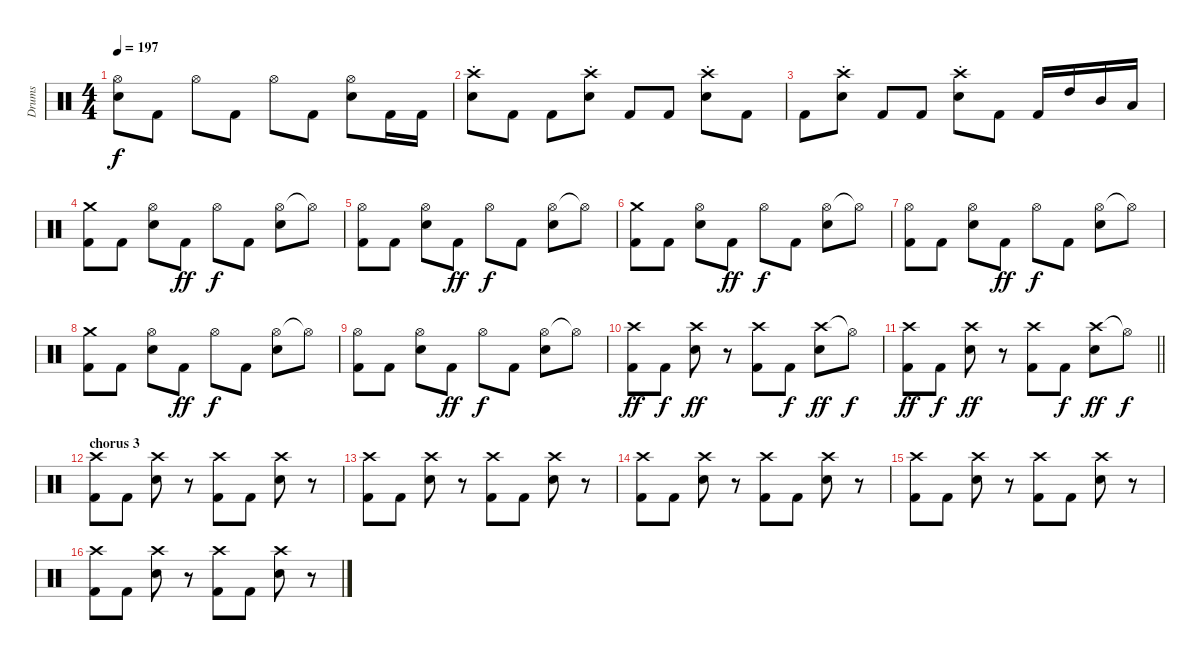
\track ("Drums" "Drums") {instrument percussion}
\staff {score}
\articulation defaults
\ts (4 4)
\tempo 197
\clef neutral
\ks c
("Hi-Hat (open)" "Snare (hit) 2").8{dy f} "Kick (hit) 2".8 "Hi-Hat (open)".8 "Kick (hit) 2".8 "Hi-Hat (open)".8 "Kick (hit) 2".8 ("Hi-Hat (open)" "Snare (hit) 2").8 "Kick (hit) 2".16 "Kick (hit) 2".16 |
("Crash high (hit)"{st} "Snare (hit) 2"{st}).8 "Kick (hit) 2".8 "Kick (hit) 2".8 ("Crash high (hit)"{st} "Snare (hit) 2"{st}).8 "Kick (hit) 2".8 "Kick (hit) 2".8 ("Crash high (hit)"{st} "Snare (hit) 2"{st}).8 "Kick (hit) 2".8 |
"Kick (hit) 2".8 ("Crash high (hit)"{st} "Snare (hit) 2"{st}).8 "Kick (hit) 2".8 "Kick (hit) 2".8 ("Crash high (hit)"{st} "Snare (hit) 2"{st}).8 "Kick (hit) 2".8 "Kick (hit) 2".16 "High Tom (hit)".16 "Mid Tom (hit)".16 "Low Tom (hit)".16 |
("Crash medium (hit)" "Kick (hit) 2").8 "Kick (hit) 2".8 ("Hi-Hat (open)" "Snare (hit) 2").8 "Kick (hit) 2".8{dy ff} "Hi-Hat (open)".8{dy f} "Kick (hit) 2".8 ("Hi-Hat (open)" "Snare (hit) 2").8 "Hi-Hat (open)"{t}.8 |
("Hi-Hat (open)" "Kick (hit) 2").8 "Kick (hit) 2".8 ("Hi-Hat (open)" "Snare (hit) 2").8 "Kick (hit) 2".8{dy ff} "Hi-Hat (open)".8{dy f} "Kick (hit) 2".8 ("Hi-Hat (open)" "Snare (hit) 2").8 "Hi-Hat (open)"{t}.8 |
("Crash medium (hit)" "Kick (hit) 2").8 "Kick (hit) 2".8 ("Hi-Hat (open)" "Snare (hit) 2").8 "Kick (hit) 2".8{dy ff} "Hi-Hat (open)".8{dy f} "Kick (hit) 2".8 ("Hi-Hat (open)" "Snare (hit) 2").8 "Hi-Hat (open)"{t}.8 |
("Hi-Hat (open)" "Kick (hit) 2").8 "Kick (hit) 2".8 ("Hi-Hat (open)" "Snare (hit) 2").8 "Kick (hit) 2".8{dy ff} "Hi-Hat (open)".8{dy f} "Kick (hit) 2".8 ("Hi-Hat (open)" "Snare (hit) 2").8 "Hi-Hat (open)"{t}.8 |
("Crash medium (hit)" "Kick (hit) 2").8 "Kick (hit) 2".8 ("Hi-Hat (open)" "Snare (hit) 2").8 "Kick (hit) 2".8{dy ff} "Hi-Hat (open)".8{dy f} "Kick (hit) 2".8 ("Hi-Hat (open)" "Snare (hit) 2").8 "Hi-Hat (open)"{t}.8 |
("Hi-Hat (open)" "Kick (hit) 2").8 "Kick (hit) 2".8 ("Hi-Hat (open)" "Snare (hit) 2").8 "Kick (hit) 2".8{dy ff} "Hi-Hat (open)".8{dy f} "Kick (hit) 2".8 ("Hi-Hat (open)" "Snare (hit) 2").8 "Hi-Hat (open)"{t}.8 |
("Crash high (hit)" "Kick (hit) 2").8{dy ff} "Kick (hit) 2".8{dy f} ("Crash high (hit)" "Snare (hit) 2").8{dy ff} r.8 ("Crash high (hit)" "Kick (hit) 2").8 "Kick (hit) 2".8{dy f} ("Crash high (hit)" "Snare (hit) 2").8{dy ff} "Hi-Hat (open)"{t}.8{dy f} |
\barLineRight lightlight
("Crash high (hit)" "Kick (hit) 2").8{dy ff} "Kick (hit) 2".8{dy f} ("Crash high (hit)" "Snare (hit) 2").8{dy ff} r.8 ("Crash high (hit)" "Kick (hit) 2").8 "Kick (hit) 2".8{dy f} ("Crash high (hit)" "Snare (hit) 2").8{dy ff} "Hi-Hat (open)"{t}.8{dy f} |
\section ("" "chorus 3")
("Crash high (hit)" "Kick (hit) 2").8 "Kick (hit) 2".8 ("Crash high (hit)" "Snare (hit) 2").8 r.8 ("Crash high (hit)" "Kick (hit) 2").8 "Kick (hit) 2".8 ("Crash high (hit)" "Snare (hit) 2").8 r.8 |
("Crash high (hit)" "Kick (hit) 2").8 "Kick (hit) 2".8 ("Crash high (hit)" "Snare (hit) 2").8 r.8 ("Crash high (hit)" "Kick (hit) 2").8 "Kick (hit) 2".8 ("Crash high (hit)" "Snare (hit) 2").8 r.8 |
("Crash high (hit)" "Kick (hit) 2").8 "Kick (hit) 2".8 ("Crash high (hit)" "Snare (hit) 2").8 r.8 ("Crash high (hit)" "Kick (hit) 2").8 "Kick (hit) 2".8 ("Crash high (hit)" "Snare (hit) 2").8 r.8 |
("Crash high (hit)" "Kick (hit) 2").8 "Kick (hit) 2".8 ("Crash high (hit)" "Snare (hit) 2").8 r.8 ("Crash high (hit)" "Kick (hit) 2").8 "Kick (hit) 2".8 ("Crash high (hit)" "Snare (hit) 2").8 r.8 |
("Crash high (hit)" "Kick (hit) 2").8 "Kick (hit) 2".8 ("Crash high (hit)" "Snare (hit) 2").8 r.8 ("Crash high (hit)" "Kick (hit) 2").8 "Kick (hit) 2".8 ("Crash high (hit)" "Snare (hit) 2").8 r.8
